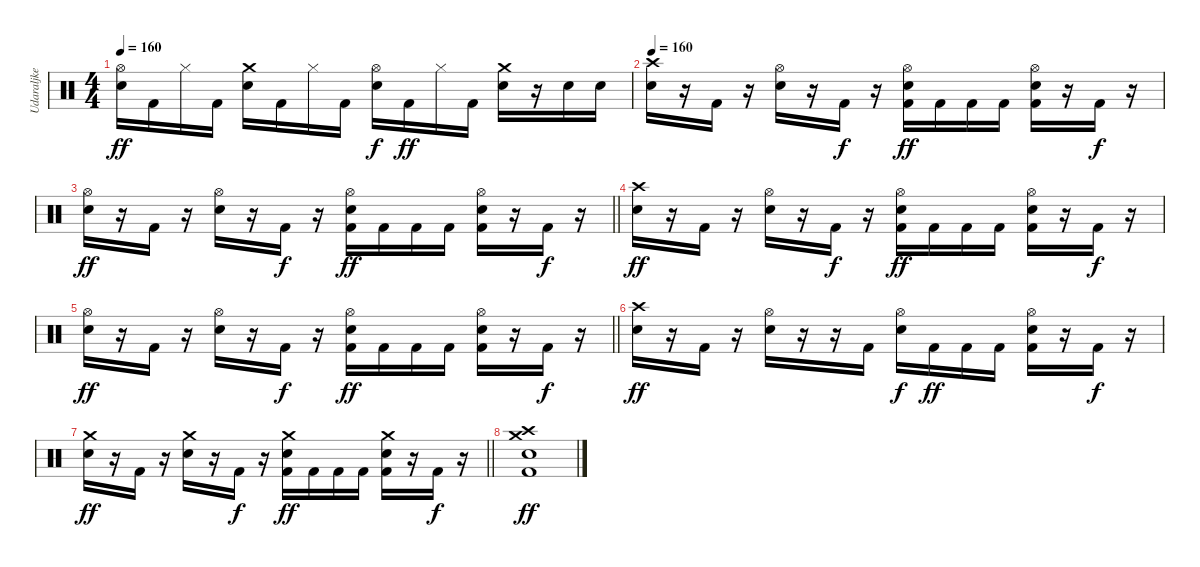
\track ("Udaraljke" "Udaraljke") {instrument percussion}
\staff {score}
\articulation defaults
\ts (4 4)
\tempo 160
\clef neutral
\ks c
("Hi-Hat (open)" "Snare (hit) 2").16{dy ff} "Kick (hit) 2".16 "Hi-Hat (closed)".16 "Kick (hit) 2".16 ("Crash medium (hit)" "Snare (hit) 2").16 "Kick (hit) 2".16 "Hi-Hat (closed)".16 "Kick (hit) 2".16 ("Hi-Hat (open)" "Snare (hit) 2").16{dy f} "Kick (hit) 2".16{dy ff} "Hi-Hat (closed)".16 "Kick (hit) 2".16 ("Crash medium (hit)" "Snare (hit) 2").16 r.16 "Snare (hit) 2".16 "Snare (hit) 2".16 |
\tempo 160
("Crash high (hit)" "Snare (hit) 2").16 r.16 "Kick (hit) 2".16 r.16 ("Hi-Hat (open)" "Snare (hit) 2").16 r.16 "Kick (hit) 2".16{dy f} r.16 ("Hi-Hat (open)" "Snare (hit) 2" "Kick (hit) 2").16{dy ff} "Kick (hit) 2".16 "Kick (hit) 2".16 "Kick (hit) 2".16 ("Hi-Hat (open)" "Snare (hit) 2" "Kick (hit) 2").16 r.16 "Kick (hit) 2".16{dy f} r.16 |
\barLineRight lightlight
("Hi-Hat (open)" "Snare (hit) 2").16{dy ff} r.16 "Kick (hit) 2".16 r.16 ("Hi-Hat (open)" "Snare (hit) 2").16 r.16 "Kick (hit) 2".16{dy f} r.16 ("Hi-Hat (open)" "Snare (hit) 2" "Kick (hit) 2").16{dy ff} "Kick (hit) 2".16 "Kick (hit) 2".16 "Kick (hit) 2".16 ("Hi-Hat (open)" "Snare (hit) 2" "Kick (hit) 2").16 r.16 "Kick (hit) 2".16{dy f} r.16 |
("Crash high (hit)" "Snare (hit) 2").16{dy ff} r.16 "Kick (hit) 2".16 r.16 ("Hi-Hat (open)" "Snare (hit) 2").16 r.16 "Kick (hit) 2".16{dy f} r.16 ("Hi-Hat (open)" "Snare (hit) 2" "Kick (hit) 2").16{dy ff} "Kick (hit) 2".16 "Kick (hit) 2".16 "Kick (hit) 2".16 ("Hi-Hat (open)" "Snare (hit) 2" "Kick (hit) 2").16 r.16 "Kick (hit) 2".16{dy f} r.16 |
\barLineRight lightlight
("Hi-Hat (open)" "Snare (hit) 2").16{dy ff} r.16 "Kick (hit) 2".16 r.16 ("Hi-Hat (open)" "Snare (hit) 2").16 r.16 "Kick (hit) 2".16{dy f} r.16 ("Hi-Hat (open)" "Snare (hit) 2" "Kick (hit) 2").16{dy ff} "Kick (hit) 2".16 "Kick (hit) 2".16 "Kick (hit) 2".16 ("Hi-Hat (open)" "Snare (hit) 2" "Kick (hit) 2").16 r.16 "Kick (hit) 2".16{dy f} r.16 |
\section ("" "")
("Crash high (hit)" "Snare (hit) 2").16{dy ff} r.16 "Kick (hit) 2".16 r.16 ("Hi-Hat (open)" "Snare (hit) 2").16 r.16 r.16 "Kick (hit) 2".16 ("Hi-Hat (open)" "Snare (hit) 2").16{dy f} "Kick (hit) 2".16{dy ff} "Kick (hit) 2".16 "Kick (hit) 2".16 ("Hi-Hat (open)" "Snare (hit) 2" "Kick (hit) 2").16 r.16 "Kick (hit) 2".16{dy f} r.16 |
\barLineRight lightlight
("Crash medium (hit)" "Snare (hit) 2").16{dy ff} r.16 "Kick (hit) 2".16 r.16 ("Crash medium (hit)" "Snare (hit) 2").16 r.16 "Kick (hit) 2".16{dy f} r.16 ("Crash medium (hit)" "Snare (hit) 2" "Kick (hit) 2").16{dy ff} "Kick (hit) 2".16 "Kick (hit) 2".16 "Kick (hit) 2".16 ("Crash medium (hit)" "Snare (hit) 2" "Kick (hit) 2").16 r.16 "Kick (hit) 2".16{dy f} r.16 |
("Crash high (hit)" "Crash medium (hit)" "Snare (hit) 2" "Kick (hit) 2").1{dy ff}
